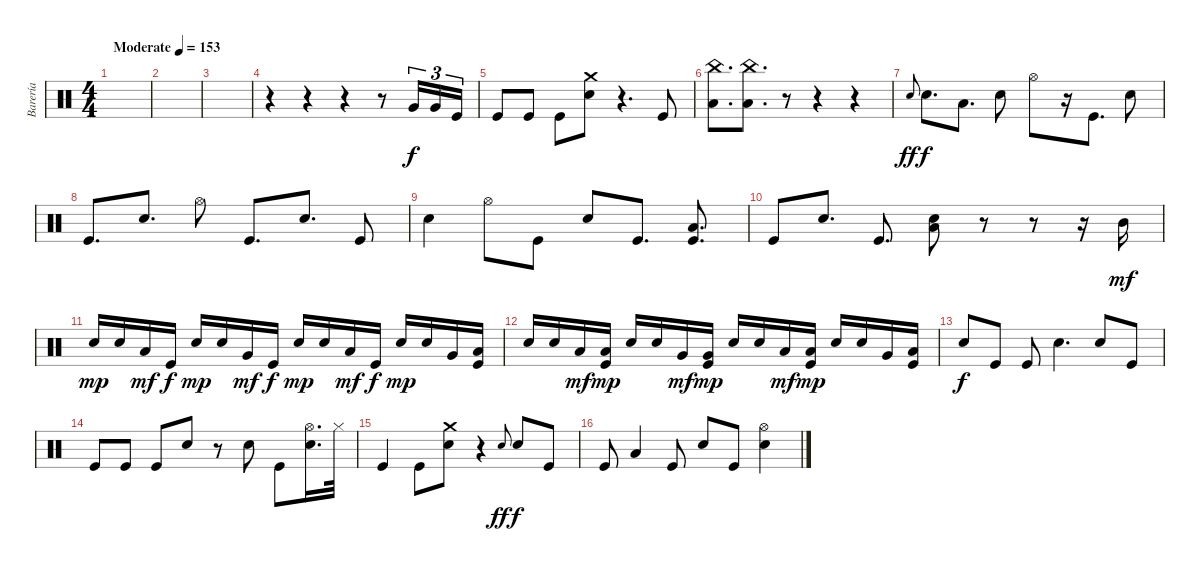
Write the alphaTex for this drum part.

\track ("Barería" "Barería") {instrument percussion}
\staff {score}
\articulation defaults
\ts (4 4)
\tempo (153 "Moderate")
\clef neutral
\ks c
|
|
|
r.4 r.4 r.4 r.8 "Very Low Tom (hit)".16{tu (3 2)} "Very Low Tom (hit)".16{tu (3 2)} "Kick (hit)".16{tu (3 2)} |
"Kick (hit)".8 "Kick (hit)".8 "Kick (hit)".8 ("Crash medium (hit)" "Snare (hit) 2").8 r.4{d} "Kick (hit)".8 |
("China (hit)" "Low Floor Tom (hit)").8{d} ("China (hit)" "Low Floor Tom (hit)").8{d} r.8 r.4 r.4 |
"Snare (hit) 2".8{gr onbeat dy ff} "Snare (hit) 2".8{d dy f} "Low Floor Tom (hit)".8{d} "Snare (hit) 2".8 "Hi-Hat (open)".8 r.16 "Kick (hit)".8{d} "Snare (hit) 2".8 |
"Kick (hit)".8{d} "Snare (hit) 2".8{d} "Hi-Hat (open)".8 "Kick (hit)".8{d} "Snare (hit) 2".8{d} "Kick (hit)".8 |
"Snare (hit) 2".4 "Hi-Hat (open)".8 "Kick (hit)".8 "Snare (hit) 2".8 "Kick (hit)".8{d} ("Low Tom (hit)" "Kick (hit)").8{d} |
"Kick (hit)".8 "Snare (hit) 2".8{d} "Kick (hit)".8{d} ("Low Tom (hit)" "Snare (hit) 2").8 r.8 r.8 r.16 "Mid Tom (hit)".16{dy mf} |
"Snare (hit) 2".16{dy mp} "Snare (hit) 2".16 "Low Tom (hit)".16{dy mf} "Kick (hit)".16{dy f} "Snare (hit) 2".16{dy mp} "Snare (hit) 2".16 "Very Low Tom (hit)".16{dy mf} "Kick (hit)".16{dy f} "Snare (hit) 2".16{dy mp} "Snare (hit) 2".16 "Low Floor Tom (hit)".16{dy mf} "Kick (hit)".16{dy f} "Snare (hit) 2".16{dy mp} "Snare (hit) 2".16 "Very Low Tom (hit)".16 ("Low Floor Tom (hit)" "Kick (hit)").16 |
"Snare (hit) 2".16 "Snare (hit) 2".16 "Low Tom (hit)".16{dy mf} ("Low Tom (hit)" "Kick (hit)").16{dy mp} "Snare (hit) 2".16 "Snare (hit) 2".16 "Very Low Tom (hit)".16{dy mf} ("Very Low Tom (hit)" "Kick (hit)").16{dy mp} "Snare (hit) 2".16 "Snare (hit) 2".16 "Low Floor Tom (hit)".16{dy mf} ("Low Floor Tom (hit)" "Kick (hit)").16{dy mp} "Snare (hit) 2".16 "Snare (hit) 2".16 "Very Low Tom (hit)".16 ("Low Floor Tom (hit)" "Kick (hit)").16 |
"Snare (hit) 2".8{dy f} "Kick (hit)".8 "Kick (hit)".8 "Snare (hit) 2".4{d} "Snare (hit) 2".8 "Kick (hit)".8 |
"Kick (hit)".8 "Kick (hit)".8 "Kick (hit)".8 "Snare (hit) 2".8 r.8 "Snare (hit) 2".8 "Kick (hit)".8 ("Hi-Hat (open)" "Snare (hit) 2").16{d} "Hi-Hat (closed)".32 |
"Kick (hit)".4 "Kick (hit)".8 ("Crash medium (hit)" "Snare (hit) 2").8 r.4 "Snare (hit) 2".8{gr onbeat dy ff} "Snare (hit) 2".8{dy f} "Kick (hit)".8 |
"Kick (hit)".8 "Low Floor Tom (hit)".4 "Kick (hit)".8 "Snare (hit) 2".8 "Kick (hit)".8 ("Hi-Hat (open)" "Snare (hit) 2").4
